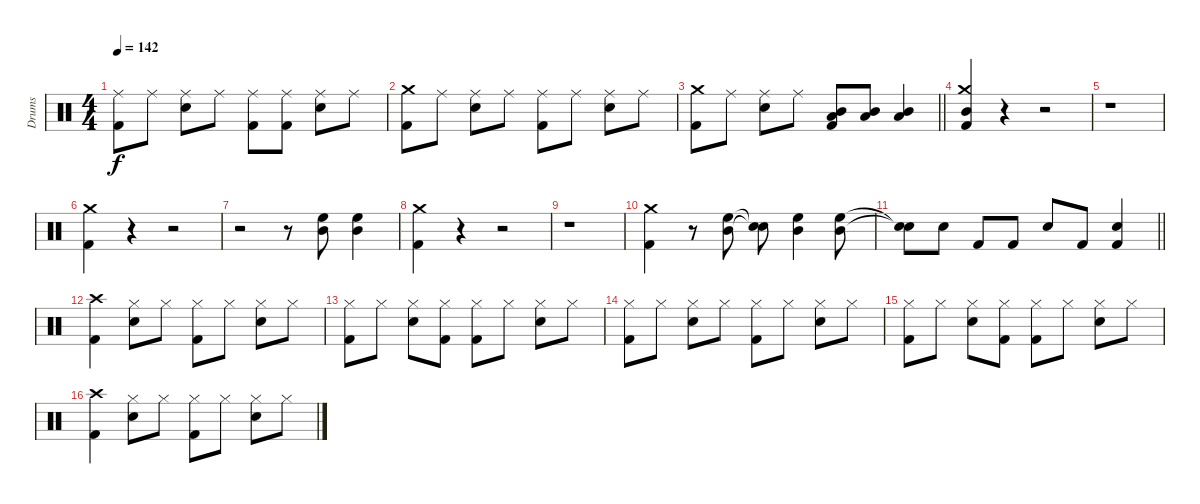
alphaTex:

\track ("Drums" "Drums") {instrument percussion}
\staff {score}
\articulation defaults
\ts (4 4)
\tempo 142
\clef neutral
\ks c
("Ride (middle)" "Kick (hit) 2").8{dy f} "Ride (middle)".8 ("Ride (middle)" "Snare (hit) 2").8 "Ride (middle)".8 ("Ride (middle)" "Kick (hit) 2").8 ("Ride (middle)" "Kick (hit) 2").8 ("Ride (middle)" "Snare (hit) 2").8 "Ride (middle)".8 |
("Crash medium (hit)" "Kick (hit) 2").8 "Ride (middle)".8 ("Ride (middle)" "Snare (hit) 2").8 "Ride (middle)".8 ("Ride (middle)" "Kick (hit) 2").8 "Ride (middle)".8 ("Ride (middle)" "Snare (hit) 2").8 "Ride (middle)".8 |
\barLineRight lightlight
("Crash medium (hit)" "Kick (hit) 2").8 "Ride (middle)".8 ("Ride (middle)" "Snare (hit) 2").8 "Ride (middle)".8 ("Mid Tom (hit)" "Low Tom (hit)" "Kick (hit) 2").8 ("Mid Tom (hit)" "Low Tom (hit)").8 ("Mid Tom (hit)" "Low Tom (hit)").4 |
("Crash medium (hit)" "Mid Tom (hit)" "Kick (hit) 2").4 r.4 r.2 |
r.1 |
("Crash medium (hit)" "Kick (hit) 2").4 r.4 r.2 |
r.2 r.8 ("High Floor Tom (hit)" "Mid Tom (hit)").8 ("High Floor Tom (hit)" "Mid Tom (hit)").4 |
("Crash medium (hit)" "Kick (hit) 2").4 r.4 r.2 |
r.1 |
("Crash medium (hit)" "Kick (hit) 2").4 r.8 ("High Floor Tom (hit)" "Mid Tom (hit)").8 ("Snare (hit)"{t} "Snare (hit)"{t}).8 ("High Floor Tom (hit)" "Mid Tom (hit)").4 ("High Floor Tom (hit)" "Mid Tom (hit)").8 |
\barLineRight lightlight
("Snare (hit)"{t} "Snare (hit)"{t}).8 "Snare (hit) 2".8 "Kick (hit) 2".8 "Kick (hit) 2".8 "Snare (hit) 2".8 "Kick (hit) 2".8 ("Snare (hit) 2" "Kick (hit) 2").4 |
("Crash high (hit)" "Kick (hit) 2").4 ("Hi-Hat (closed)" "Snare (hit) 2").8 "Hi-Hat (closed)".8 ("Hi-Hat (closed)" "Kick (hit) 2").8 "Hi-Hat (closed)".8 ("Hi-Hat (closed)" "Snare (hit) 2").8 "Hi-Hat (closed)".8 |
("Hi-Hat (closed)" "Kick (hit) 2").8 "Hi-Hat (closed)".8 ("Hi-Hat (closed)" "Snare (hit) 2").8 ("Hi-Hat (closed)" "Kick (hit) 2").8 ("Hi-Hat (closed)" "Kick (hit) 2").8 "Hi-Hat (closed)".8 ("Hi-Hat (closed)" "Snare (hit) 2").8 "Hi-Hat (closed)".8 |
("Hi-Hat (closed)" "Kick (hit) 2").8 "Hi-Hat (closed)".8 ("Hi-Hat (closed)" "Snare (hit) 2").8 "Hi-Hat (closed)".8 ("Hi-Hat (closed)" "Kick (hit) 2").8 "Hi-Hat (closed)".8 ("Hi-Hat (closed)" "Snare (hit) 2").8 "Hi-Hat (closed)".8 |
("Hi-Hat (closed)" "Kick (hit) 2").8 "Hi-Hat (closed)".8 ("Hi-Hat (closed)" "Snare (hit) 2").8 ("Hi-Hat (closed)" "Kick (hit) 2").8 ("Hi-Hat (closed)" "Kick (hit) 2").8 "Hi-Hat (closed)".8 ("Hi-Hat (closed)" "Snare (hit) 2").8 "Hi-Hat (closed)".8 |
("Crash high (hit)" "Kick (hit) 2").4 ("Hi-Hat (closed)" "Snare (hit) 2").8 "Hi-Hat (closed)".8 ("Hi-Hat (closed)" "Kick (hit) 2").8 "Hi-Hat (closed)".8 ("Hi-Hat (closed)" "Snare (hit) 2").8 "Hi-Hat (closed)".8
